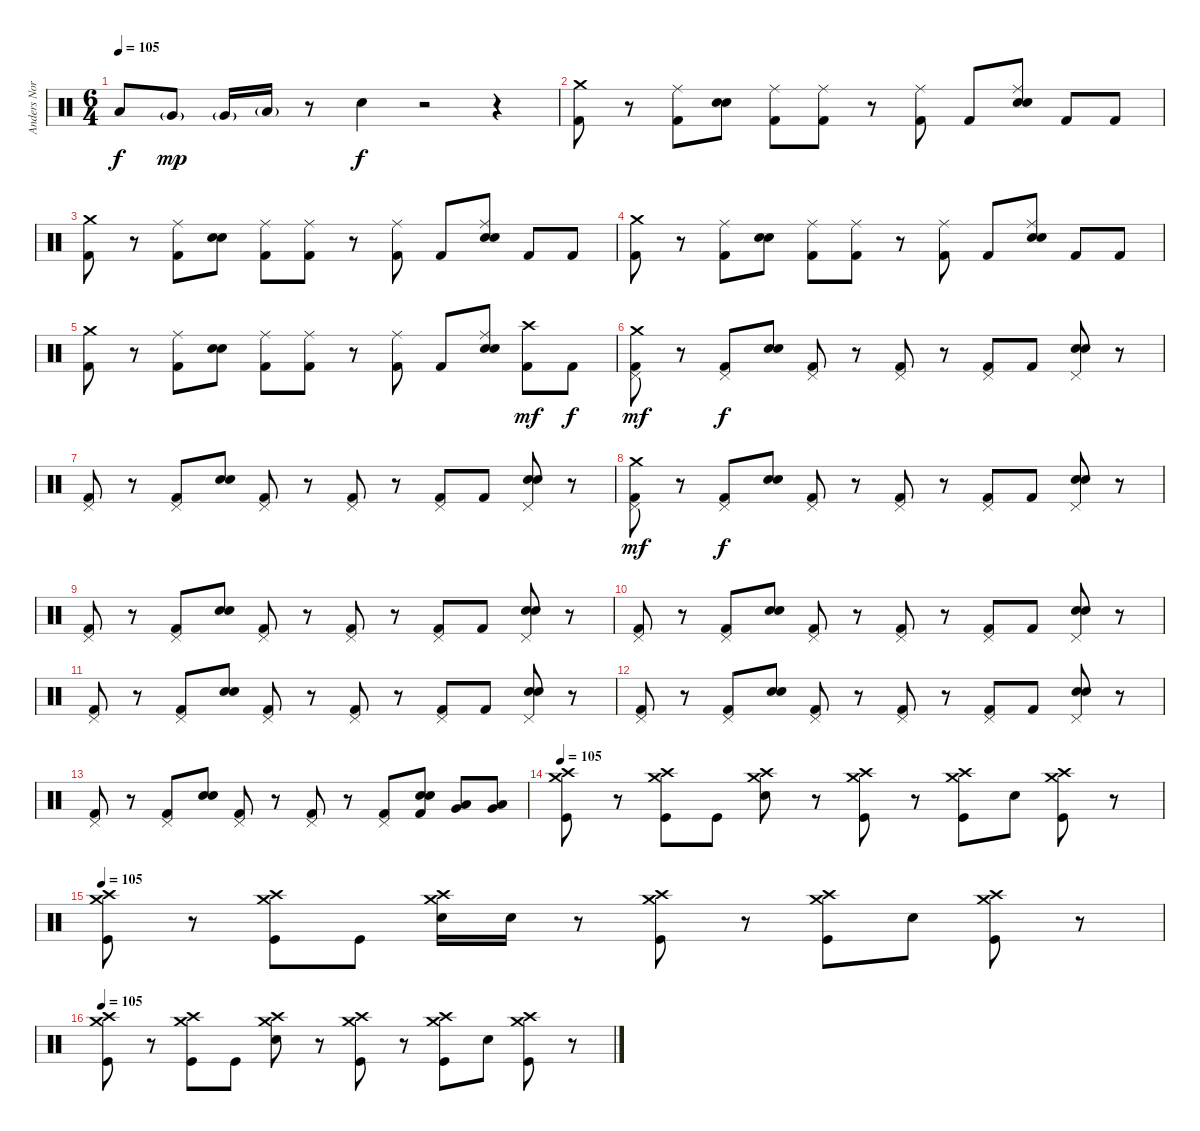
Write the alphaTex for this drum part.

\track ("Anders Nordin" "Anders Nor") {instrument percussion}
\staff {score}
\articulation defaults
\ts (6 4)
\tempo 105
\clef neutral
\ks c "Low Floor Tom (hit)".8{dy f} "Very Low Tom (hit)"{g}.8{dy mp} "Very Low Tom (hit)"{g}.16 "Low Floor Tom (hit)"{g}.16
r.8 "Snare (hit) 2".4{dy f} r.2 r.4 |
("Crash medium (hit)" "Kick (hit) 2").8 r.8 ("Ride (middle)" "Kick (hit) 2").8 ("Electric Snare (hit)" "Snare (hit) 2").8 ("Ride (middle)" "Kick (hit) 2").8 ("Ride (middle)" "Kick (hit) 2").8 r.8 ("Ride (middle)" "Kick (hit) 2").8 "Kick (hit) 2".8 ("Ride (middle)" "Electric Snare (hit)" "Snare (hit) 2").8 "Kick (hit) 2".8 "Kick (hit) 2".8 |
("Crash medium (hit)" "Kick (hit) 2").8 r.8 ("Ride (middle)" "Kick (hit) 2").8 ("Electric Snare (hit)" "Snare (hit) 2").8 ("Ride (middle)" "Kick (hit) 2").8 ("Ride (middle)" "Kick (hit) 2").8 r.8 ("Ride (middle)" "Kick (hit) 2").8 "Kick (hit) 2".8 ("Ride (middle)" "Electric Snare (hit)" "Snare (hit) 2").8 "Kick (hit) 2".8 "Kick (hit) 2".8 |
("Crash medium (hit)" "Kick (hit) 2").8 r.8 ("Ride (middle)" "Kick (hit) 2").8 ("Electric Snare (hit)" "Snare (hit) 2").8 ("Ride (middle)" "Kick (hit) 2").8 ("Ride (middle)" "Kick (hit) 2").8 r.8 ("Ride (middle)" "Kick (hit) 2").8 "Kick (hit) 2".8 ("Ride (middle)" "Electric Snare (hit)" "Snare (hit) 2").8 "Kick (hit) 2".8 "Kick (hit) 2".8 |
("Crash medium (hit)" "Kick (hit) 2").8 r.8 ("Ride (middle)" "Kick (hit) 2").8 ("Electric Snare (hit)" "Snare (hit) 2").8 ("Ride (middle)" "Kick (hit) 2").8 ("Ride (middle)" "Kick (hit) 2").8 r.8 ("Ride (middle)" "Kick (hit) 2").8 "Kick (hit) 2".8 ("Ride (middle)" "Electric Snare (hit)" "Snare (hit) 2").8 ("Crash high (hit)" "Kick (hit) 2").8{dy mf} "Kick (hit) 2".8{dy f} |
("Crash medium (hit)" "Pedal Hi-Hat (hit)" "Kick (hit) 2").8{dy mf} r.8 ("Pedal Hi-Hat (hit)" "Kick (hit) 2").8{dy f} ("Electric Snare (hit)" "Snare (hit) 2").8 ("Pedal Hi-Hat (hit)" "Kick (hit) 2").8 r.8 ("Pedal Hi-Hat (hit)" "Kick (hit) 2").8 r.8 ("Pedal Hi-Hat (hit)" "Kick (hit) 2").8 "Kick (hit) 2".8 ("Pedal Hi-Hat (hit)" "Electric Snare (hit)" "Snare (hit) 2").8 r.8 |
("Pedal Hi-Hat (hit)" "Kick (hit) 2").8 r.8 ("Pedal Hi-Hat (hit)" "Kick (hit) 2").8 ("Electric Snare (hit)" "Snare (hit) 2").8 ("Pedal Hi-Hat (hit)" "Kick (hit) 2").8 r.8 ("Pedal Hi-Hat (hit)" "Kick (hit) 2").8 r.8 ("Pedal Hi-Hat (hit)" "Kick (hit) 2").8 "Kick (hit) 2".8 ("Pedal Hi-Hat (hit)" "Electric Snare (hit)" "Snare (hit) 2").8 r.8 |
("Crash medium (hit)" "Pedal Hi-Hat (hit)" "Kick (hit) 2").8{dy mf} r.8 ("Pedal Hi-Hat (hit)" "Kick (hit) 2").8{dy f} ("Electric Snare (hit)" "Snare (hit) 2").8 ("Pedal Hi-Hat (hit)" "Kick (hit) 2").8 r.8 ("Pedal Hi-Hat (hit)" "Kick (hit) 2").8 r.8 ("Pedal Hi-Hat (hit)" "Kick (hit) 2").8 "Kick (hit) 2".8 ("Pedal Hi-Hat (hit)" "Electric Snare (hit)" "Snare (hit) 2").8 r.8 |
("Pedal Hi-Hat (hit)" "Kick (hit) 2").8 r.8 ("Pedal Hi-Hat (hit)" "Kick (hit) 2").8 ("Electric Snare (hit)" "Snare (hit) 2").8 ("Pedal Hi-Hat (hit)" "Kick (hit) 2").8 r.8 ("Pedal Hi-Hat (hit)" "Kick (hit) 2").8 r.8 ("Pedal Hi-Hat (hit)" "Kick (hit) 2").8 "Kick (hit) 2".8 ("Pedal Hi-Hat (hit)" "Electric Snare (hit)" "Snare (hit) 2").8 r.8 |
("Pedal Hi-Hat (hit)" "Kick (hit) 2").8 r.8 ("Pedal Hi-Hat (hit)" "Kick (hit) 2").8 ("Electric Snare (hit)" "Snare (hit) 2").8 ("Pedal Hi-Hat (hit)" "Kick (hit) 2").8 r.8 ("Pedal Hi-Hat (hit)" "Kick (hit) 2").8 r.8 ("Pedal Hi-Hat (hit)" "Kick (hit) 2").8 "Kick (hit) 2".8 ("Pedal Hi-Hat (hit)" "Electric Snare (hit)" "Snare (hit) 2").8 r.8 |
("Pedal Hi-Hat (hit)" "Kick (hit) 2").8 r.8 ("Pedal Hi-Hat (hit)" "Kick (hit) 2").8 ("Electric Snare (hit)" "Snare (hit) 2").8 ("Pedal Hi-Hat (hit)" "Kick (hit) 2").8 r.8 ("Pedal Hi-Hat (hit)" "Kick (hit) 2").8 r.8 ("Pedal Hi-Hat (hit)" "Kick (hit) 2").8 "Kick (hit) 2".8 ("Pedal Hi-Hat (hit)" "Electric Snare (hit)" "Snare (hit) 2").8 r.8 |
("Pedal Hi-Hat (hit)" "Kick (hit) 2").8 r.8 ("Pedal Hi-Hat (hit)" "Kick (hit) 2").8 ("Electric Snare (hit)" "Snare (hit) 2").8 ("Pedal Hi-Hat (hit)" "Kick (hit) 2").8 r.8 ("Pedal Hi-Hat (hit)" "Kick (hit) 2").8 r.8 ("Pedal Hi-Hat (hit)" "Kick (hit) 2").8 "Kick (hit) 2".8 ("Pedal Hi-Hat (hit)" "Electric Snare (hit)" "Snare (hit) 2").8 r.8 |
("Pedal Hi-Hat (hit)" "Kick (hit) 2").8 r.8 ("Pedal Hi-Hat (hit)" "Kick (hit) 2").8 ("Electric Snare (hit)" "Snare (hit) 2").8 ("Pedal Hi-Hat (hit)" "Kick (hit) 2").8 r.8 ("Pedal Hi-Hat (hit)" "Kick (hit) 2").8 r.8 ("Pedal Hi-Hat (hit)" "Kick (hit) 2").8 ("Snare (hit) 2" "Electric Snare (hit)" "Kick (hit) 2").8 ("Low Tom (hit)" "Very Low Tom (hit)").8 ("Very Low Tom (hit)" "Low Floor Tom (hit)").8 |
\tempo 105
("Crash high (hit)" "Crash medium (hit)" "Kick (hit)").8 r.8 ("Crash high (hit)" "Crash medium (hit)" "Kick (hit)").8 "Kick (hit)".8 ("Crash high (hit)" "Crash medium (hit)" "Electric Snare (hit)").8 r.8 ("Crash high (hit)" "Crash medium (hit)" "Kick (hit)").8 r.8 ("Crash high (hit)" "Crash medium (hit)" "Kick (hit)").8 "Electric Snare (hit)".8 ("Crash high (hit)" "Crash medium (hit)" "Kick (hit)").8 r.8 |
\tempo 105
("Crash high (hit)" "Crash medium (hit)" "Kick (hit)").8 r.8 ("Crash high (hit)" "Crash medium (hit)" "Kick (hit)").8 "Kick (hit)".8 ("Crash high (hit)" "Crash medium (hit)" "Electric Snare (hit)").16 "Electric Snare (hit)".16 r.8 ("Crash high (hit)" "Crash medium (hit)" "Kick (hit)").8 r.8 ("Crash high (hit)" "Crash medium (hit)" "Kick (hit)").8 "Electric Snare (hit)".8 ("Crash high (hit)" "Crash medium (hit)" "Kick (hit)").8 r.8 |
\tempo 105
("Crash high (hit)" "Crash medium (hit)" "Kick (hit)").8 r.8 ("Crash high (hit)" "Crash medium (hit)" "Kick (hit)").8 "Kick (hit)".8 ("Crash high (hit)" "Crash medium (hit)" "Electric Snare (hit)").8 r.8 ("Crash high (hit)" "Crash medium (hit)" "Kick (hit)").8 r.8 ("Crash high (hit)" "Crash medium (hit)" "Kick (hit)").8 "Electric Snare (hit)".8 ("Crash high (hit)" "Crash medium (hit)" "Kick (hit)").8 r.8
